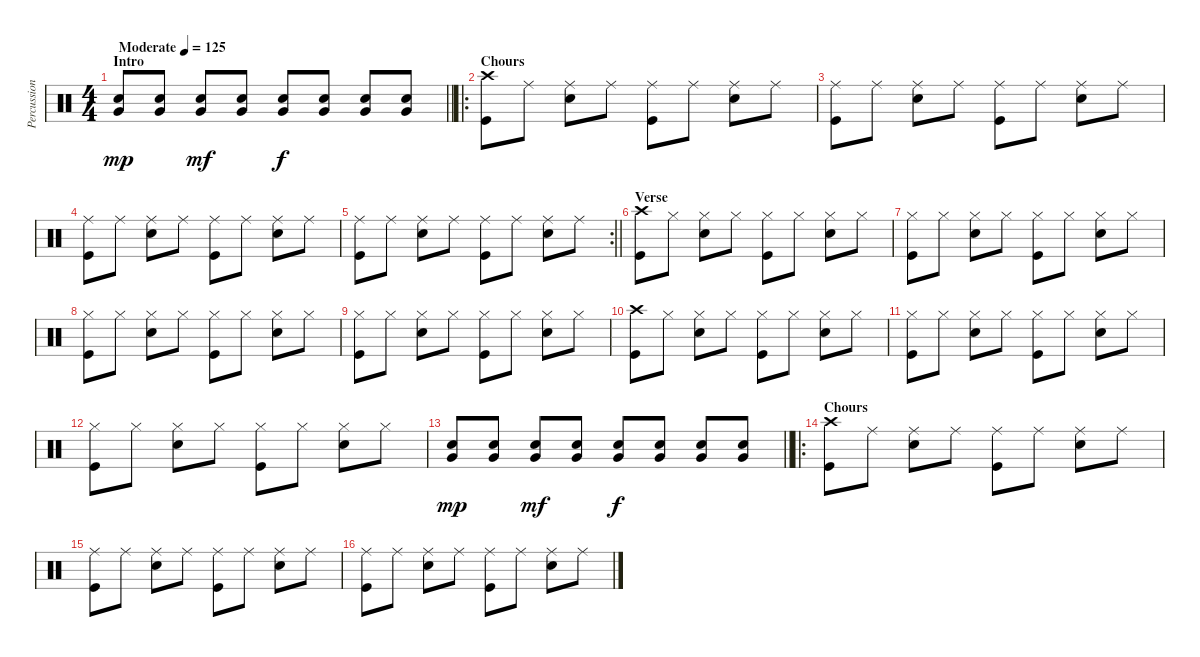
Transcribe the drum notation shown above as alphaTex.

\track ("Percussion" "Percussion") {instrument percussion}
\staff {score}
\articulation defaults
\ts (4 4)
\section ("" "Intro")
\tempo (125 "Moderate")
\clef neutral
\barLineRight lightlight
\ks c
("Snare (hit) 2" "Very Low Tom (hit)").8{dy mp} ("Snare (hit) 2" "Very Low Tom (hit)").8 ("Snare (hit) 2" "Very Low Tom (hit)").8{dy mf} ("Snare (hit) 2" "Very Low Tom (hit)").8 ("Snare (hit) 2" "Very Low Tom (hit)").8{dy f} ("Snare (hit) 2" "Very Low Tom (hit)").8 ("Snare (hit) 2" "Very Low Tom (hit)").8 ("Snare (hit) 2" "Very Low Tom (hit)").8 |
\ro
\section ("" "Chours")
("Kick (hit)" "Crash high (hit)").8 "Ride (middle)".8 ("Snare (hit) 2" "Ride (middle)").8 "Ride (middle)".8 ("Kick (hit)" "Ride (middle)").8 "Ride (middle)".8 ("Snare (hit) 2" "Ride (middle)").8 "Ride (middle)".8 |
("Kick (hit)" "Ride (middle)").8 "Ride (middle)".8 ("Snare (hit) 2" "Ride (middle)").8 "Ride (middle)".8 ("Kick (hit)" "Ride (middle)").8 "Ride (middle)".8 ("Snare (hit) 2" "Ride (middle)").8 "Ride (middle)".8 |
("Kick (hit)" "Ride (middle)").8 "Ride (middle)".8 ("Snare (hit) 2" "Ride (middle)").8 "Ride (middle)".8 ("Kick (hit)" "Ride (middle)").8 "Ride (middle)".8 ("Snare (hit) 2" "Ride (middle)").8 "Ride (middle)".8 |
\rc 2
\barLineRight lightlight
("Kick (hit)" "Ride (middle)").8 "Ride (middle)".8 ("Snare (hit) 2" "Ride (middle)").8 "Ride (middle)".8 ("Kick (hit)" "Ride (middle)").8 "Ride (middle)".8 ("Snare (hit) 2" "Ride (middle)").8 "Ride (middle)".8 |
\section ("" "Verse")
("Kick (hit)" "Crash high (hit)").8 "Hi-Hat (closed)".8 ("Snare (hit) 2" "Hi-Hat (closed)").8 "Hi-Hat (closed)".8 ("Kick (hit)" "Hi-Hat (closed)").8 "Hi-Hat (closed)".8 ("Snare (hit) 2" "Hi-Hat (closed)").8 "Hi-Hat (closed)".8 |
("Kick (hit)" "Hi-Hat (closed)").8 "Hi-Hat (closed)".8 ("Snare (hit) 2" "Hi-Hat (closed)").8 "Hi-Hat (closed)".8 ("Kick (hit)" "Hi-Hat (closed)").8 "Hi-Hat (closed)".8 ("Snare (hit) 2" "Hi-Hat (closed)").8 "Hi-Hat (closed)".8 |
("Kick (hit)" "Hi-Hat (closed)").8 "Hi-Hat (closed)".8 ("Snare (hit) 2" "Hi-Hat (closed)").8 "Hi-Hat (closed)".8 ("Kick (hit)" "Hi-Hat (closed)").8 "Hi-Hat (closed)".8 ("Snare (hit) 2" "Hi-Hat (closed)").8 "Hi-Hat (closed)".8 |
("Kick (hit)" "Hi-Hat (closed)").8 "Hi-Hat (closed)".8 ("Snare (hit) 2" "Hi-Hat (closed)").8 "Hi-Hat (closed)".8 ("Kick (hit)" "Hi-Hat (closed)").8 "Hi-Hat (closed)".8 ("Snare (hit) 2" "Hi-Hat (closed)").8 "Hi-Hat (closed)".8 |
("Kick (hit)" "Crash high (hit)").8 "Hi-Hat (closed)".8 ("Snare (hit) 2" "Hi-Hat (closed)").8 "Hi-Hat (closed)".8 ("Kick (hit)" "Hi-Hat (closed)").8 "Hi-Hat (closed)".8 ("Snare (hit) 2" "Hi-Hat (closed)").8 "Hi-Hat (closed)".8 |
("Kick (hit)" "Hi-Hat (closed)").8 "Hi-Hat (closed)".8 ("Snare (hit) 2" "Hi-Hat (closed)").8 "Hi-Hat (closed)".8 ("Kick (hit)" "Hi-Hat (closed)").8 "Hi-Hat (closed)".8 ("Snare (hit) 2" "Hi-Hat (closed)").8 "Hi-Hat (closed)".8 |
("Kick (hit)" "Hi-Hat (closed)").8 "Hi-Hat (closed)".8 ("Snare (hit) 2" "Hi-Hat (closed)").8 "Hi-Hat (closed)".8 ("Kick (hit)" "Hi-Hat (closed)").8 "Hi-Hat (closed)".8 ("Snare (hit) 2" "Hi-Hat (closed)").8 "Hi-Hat (closed)".8 |
\barLineRight lightlight
("Snare (hit) 2" "Very Low Tom (hit)").8{dy mp} ("Snare (hit) 2" "Very Low Tom (hit)").8 ("Snare (hit) 2" "Very Low Tom (hit)").8{dy mf} ("Snare (hit) 2" "Very Low Tom (hit)").8 ("Snare (hit) 2" "Very Low Tom (hit)").8{dy f} ("Snare (hit) 2" "Very Low Tom (hit)").8 ("Snare (hit) 2" "Very Low Tom (hit)").8 ("Snare (hit) 2" "Very Low Tom (hit)").8 |
\ro
\section ("" "Chours")
("Kick (hit)" "Crash high (hit)").8 "Ride (middle)".8 ("Snare (hit) 2" "Ride (middle)").8 "Ride (middle)".8 ("Kick (hit)" "Ride (middle)").8 "Ride (middle)".8 ("Snare (hit) 2" "Ride (middle)").8 "Ride (middle)".8 |
("Kick (hit)" "Ride (middle)").8 "Ride (middle)".8 ("Snare (hit) 2" "Ride (middle)").8 "Ride (middle)".8 ("Kick (hit)" "Ride (middle)").8 "Ride (middle)".8 ("Snare (hit) 2" "Ride (middle)").8 "Ride (middle)".8 |
("Kick (hit)" "Ride (middle)").8 "Ride (middle)".8 ("Snare (hit) 2" "Ride (middle)").8 "Ride (middle)".8 ("Kick (hit)" "Ride (middle)").8 "Ride (middle)".8 ("Snare (hit) 2" "Ride (middle)").8 "Ride (middle)".8
